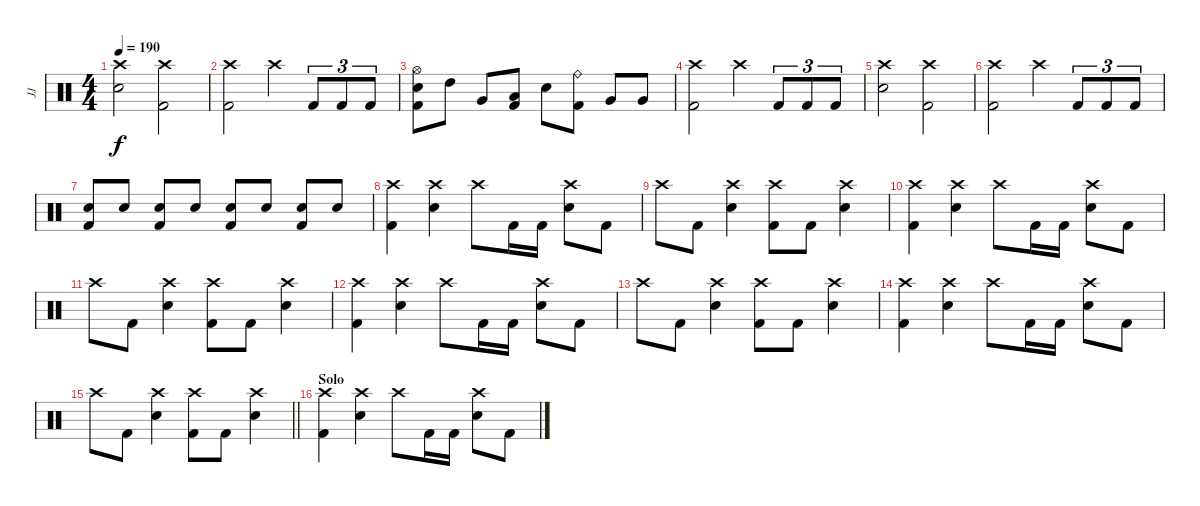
\track ("JJ" "JJ") {instrument percussion}
\staff {score}
\articulation defaults
\ts (4 4)
\tempo 190
\clef neutral
\ks c
("Crash high (hit)" "Electric Snare (hit)").2{dy f} ("Crash high (hit)" "Kick (hit) 2").2 |
("Crash high (hit)" "Kick (hit) 2").2 "Crash high (hit)".4 "Kick (hit) 2".8{tu (3 2)} "Kick (hit) 2".8{tu (3 2)} "Kick (hit) 2".8{tu (3 2)} |
("Hi-Hat (open)" "Electric Snare (hit)" "Kick (hit) 2").8 "High Tom (hit)".8 "Very Low Tom (hit)".8 ("Low Floor Tom (hit)" "Kick (hit) 2").8 "Electric Snare (hit)".8 ("Ride (bell)" "Kick (hit) 2").8 "Very Low Tom (hit)".8 "Very Low Tom (hit)".8 |
("Crash high (hit)" "Kick (hit) 2").2 "Crash high (hit)".4 "Kick (hit) 2".8{tu (3 2)} "Kick (hit) 2".8{tu (3 2)} "Kick (hit) 2".8{tu (3 2)} |
("Crash high (hit)" "Electric Snare (hit)").2 ("Crash high (hit)" "Kick (hit) 2").2 |
("Crash high (hit)" "Kick (hit) 2").2 "Crash high (hit)".4 "Kick (hit) 2".8{tu (3 2)} "Kick (hit) 2".8{tu (3 2)} "Kick (hit) 2".8{tu (3 2)} |
("Electric Snare (hit)" "Kick (hit) 2").8 "Electric Snare (hit)".8 ("Electric Snare (hit)" "Kick (hit) 2").8 "Electric Snare (hit)".8 ("Electric Snare (hit)" "Kick (hit) 2").8 "Electric Snare (hit)".8 ("Electric Snare (hit)" "Kick (hit) 2").8 "Electric Snare (hit)".8 |
("Crash high (hit)" "Kick (hit) 2").4 ("Crash high (hit)" "Electric Snare (hit)").4 "Crash high (hit)".8 "Kick (hit) 2".16 "Kick (hit) 2".16 ("Crash high (hit)" "Electric Snare (hit)").8 "Kick (hit) 2".8 |
"Crash high (hit)".8 "Kick (hit) 2".8 ("Crash high (hit)" "Electric Snare (hit)").4 ("Crash high (hit)" "Kick (hit) 2").8 "Kick (hit) 2".8 ("Crash high (hit)" "Electric Snare (hit)").4 |
("Crash high (hit)" "Kick (hit) 2").4 ("Crash high (hit)" "Electric Snare (hit)").4 "Crash high (hit)".8 "Kick (hit) 2".16 "Kick (hit) 2".16 ("Crash high (hit)" "Electric Snare (hit)").8 "Kick (hit) 2".8 |
"Crash high (hit)".8 "Kick (hit) 2".8 ("Crash high (hit)" "Electric Snare (hit)").4 ("Crash high (hit)" "Kick (hit) 2").8 "Kick (hit) 2".8 ("Crash high (hit)" "Electric Snare (hit)").4 |
("Crash high (hit)" "Kick (hit) 2").4 ("Crash high (hit)" "Electric Snare (hit)").4 "Crash high (hit)".8 "Kick (hit) 2".16 "Kick (hit) 2".16 ("Crash high (hit)" "Electric Snare (hit)").8 "Kick (hit) 2".8 |
"Crash high (hit)".8 "Kick (hit) 2".8 ("Crash high (hit)" "Electric Snare (hit)").4 ("Crash high (hit)" "Kick (hit) 2").8 "Kick (hit) 2".8 ("Crash high (hit)" "Electric Snare (hit)").4 |
("Crash high (hit)" "Kick (hit) 2").4 ("Crash high (hit)" "Electric Snare (hit)").4 "Crash high (hit)".8 "Kick (hit) 2".16 "Kick (hit) 2".16 ("Crash high (hit)" "Electric Snare (hit)").8 "Kick (hit) 2".8 |
\barLineRight lightlight "Crash high (hit)".8 "Kick (hit) 2".8
("Crash high (hit)" "Electric Snare (hit)").4 ("Crash high (hit)" "Kick (hit) 2").8 "Kick (hit) 2".8 ("Crash high (hit)" "Electric Snare (hit)").4 |
\section ("" "Solo")
("Crash high (hit)" "Kick (hit) 2").4 ("Crash high (hit)" "Electric Snare (hit)").4 "Crash high (hit)".8 "Kick (hit) 2".16 "Kick (hit) 2".16 ("Crash high (hit)" "Electric Snare (hit)").8 "Kick (hit) 2".8
